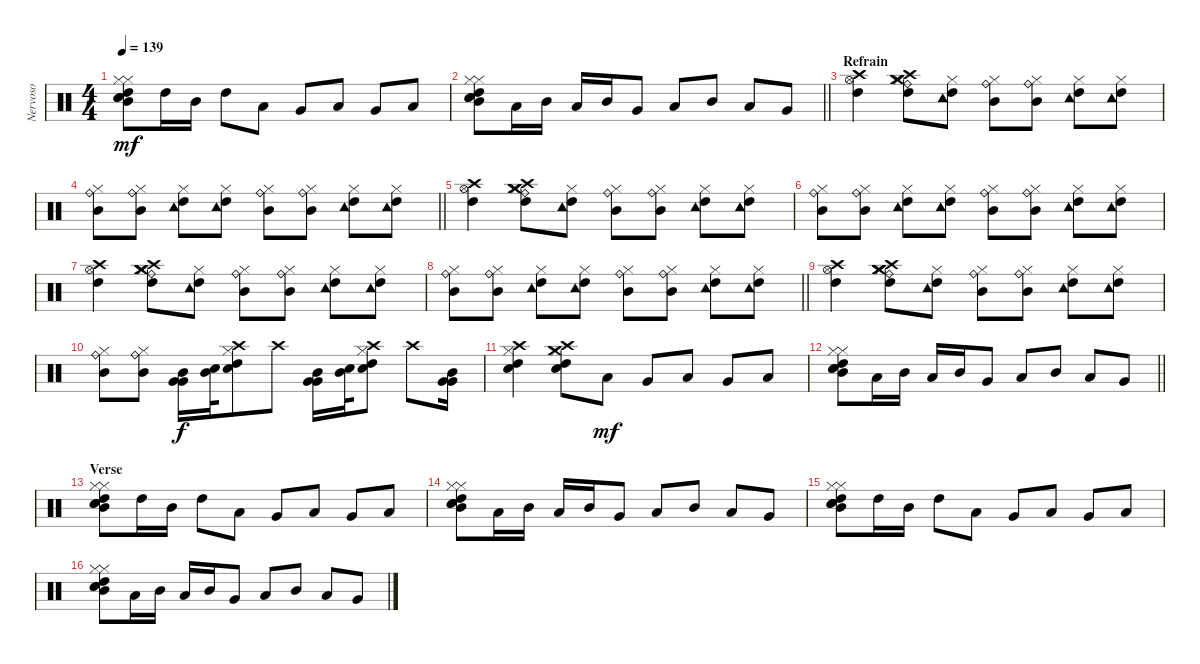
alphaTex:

\track ("Nervoso" "Nervoso") {instrument percussion}
\staff {score}
\articulation defaults
\ts (4 4)
\tempo 139
\clef neutral
\ks c
("High Tom (hit)" "Electric Snare (hit)" "Hi-Hat (closed)" "Hi-Hat (closed)" "Electric Snare (hit)" "Mid Tom (hit)").8{dy mf} "High Tom (hit)".16 "Mid Tom (hit)".16 "High Tom (hit)".8 "Low Tom (hit)".8 "Very Low Tom (hit)".8 "Low Tom (hit)".8 "Very Low Tom (hit)".8 "Low Tom (hit)".8 |
\barLineRight lightlight
("High Tom (hit)" "Electric Snare (hit)" "Hi-Hat (closed)" "Hi-Hat (closed)" "Electric Snare (hit)" "Mid Tom (hit)").8 "Low Tom (hit)".16 "Mid Tom (hit)".16 "Low Tom (hit)".16 "Mid Tom (hit)".16 "Very Low Tom (hit)".8 "Low Tom (hit)".8 "Mid Tom (hit)".8 "Low Tom (hit)".8 "Very Low Tom (hit)".8 |
\section ("" "Refrain")
("Hi-Hat (open)" "Crash high (hit)" "High Tom (hit)").4 ("High Tom (hit)" "Crash high (hit)" "Crash medium (hit)" "Hi-Hat (closed)" "Ride (bell)" "Crash medium (hit)").8 ("High Tom (hit)" "Hi-Hat (closed)" "Tambourine (hit)").8 ("Ride (bell)" "Mid Tom (hit)" "Hi-Hat (closed)").8 ("Ride (bell)" "Mid Tom (hit)" "Hi-Hat (closed)").8 ("High Tom (hit)" "Hi-Hat (closed)" "Tambourine (hit)").8 ("High Tom (hit)" "Hi-Hat (closed)" "Tambourine (hit)").8 |
\barLineRight lightlight
("Ride (bell)" "Mid Tom (hit)" "Hi-Hat (closed)").8 ("Ride (bell)" "Mid Tom (hit)" "Hi-Hat (closed)").8 ("High Tom (hit)" "Hi-Hat (closed)" "Tambourine (hit)").8 ("High Tom (hit)" "Hi-Hat (closed)" "Tambourine (hit)").8 ("Ride (bell)" "Mid Tom (hit)" "Hi-Hat (closed)").8 ("Ride (bell)" "Mid Tom (hit)" "Hi-Hat (closed)").8 ("High Tom (hit)" "Hi-Hat (closed)" "Tambourine (hit)").8 ("High Tom (hit)" "Hi-Hat (closed)" "Tambourine (hit)").8 |
("Hi-Hat (open)" "Crash high (hit)" "High Tom (hit)").4 ("High Tom (hit)" "Crash high (hit)" "Crash medium (hit)" "Hi-Hat (closed)" "Ride (bell)" "Crash medium (hit)").8 ("High Tom (hit)" "Hi-Hat (closed)" "Tambourine (hit)").8 ("Ride (bell)" "Mid Tom (hit)" "Hi-Hat (closed)").8 ("Ride (bell)" "Mid Tom (hit)" "Hi-Hat (closed)").8 ("High Tom (hit)" "Hi-Hat (closed)" "Tambourine (hit)").8 ("High Tom (hit)" "Hi-Hat (closed)" "Tambourine (hit)").8 |
("Ride (bell)" "Mid Tom (hit)" "Hi-Hat (closed)").8 ("Ride (bell)" "Mid Tom (hit)" "Hi-Hat (closed)").8 ("High Tom (hit)" "Hi-Hat (closed)" "Tambourine (hit)").8 ("High Tom (hit)" "Hi-Hat (closed)" "Tambourine (hit)").8 ("Ride (bell)" "Mid Tom (hit)" "Hi-Hat (closed)").8 ("Ride (bell)" "Mid Tom (hit)" "Hi-Hat (closed)").8 ("High Tom (hit)" "Hi-Hat (closed)" "Tambourine (hit)").8 ("High Tom (hit)" "Hi-Hat (closed)" "Tambourine (hit)").8 |
("Hi-Hat (open)" "Crash high (hit)" "High Tom (hit)").4 ("High Tom (hit)" "Crash high (hit)" "Crash medium (hit)" "Hi-Hat (closed)" "Ride (bell)" "Crash medium (hit)").8 ("High Tom (hit)" "Hi-Hat (closed)" "Tambourine (hit)").8 ("Ride (bell)" "Mid Tom (hit)" "Hi-Hat (closed)").8 ("Ride (bell)" "Mid Tom (hit)" "Hi-Hat (closed)").8 ("High Tom (hit)" "Hi-Hat (closed)" "Tambourine (hit)").8 ("High Tom (hit)" "Hi-Hat (closed)" "Tambourine (hit)").8 |
\barLineRight lightlight
("Ride (bell)" "Mid Tom (hit)" "Hi-Hat (closed)").8 ("Ride (bell)" "Mid Tom (hit)" "Hi-Hat (closed)").8 ("High Tom (hit)" "Hi-Hat (closed)" "Tambourine (hit)").8 ("High Tom (hit)" "Hi-Hat (closed)" "Tambourine (hit)").8 ("Ride (bell)" "Mid Tom (hit)" "Hi-Hat (closed)").8 ("Ride (bell)" "Mid Tom (hit)" "Hi-Hat (closed)").8 ("High Tom (hit)" "Hi-Hat (closed)" "Tambourine (hit)").8 ("High Tom (hit)" "Hi-Hat (closed)" "Tambourine (hit)").8 |
("Hi-Hat (open)" "Crash high (hit)" "High Tom (hit)").4 ("High Tom (hit)" "Crash high (hit)" "Crash medium (hit)" "Hi-Hat (closed)" "Ride (bell)" "Crash medium (hit)").8 ("High Tom (hit)" "Hi-Hat (closed)" "Tambourine (hit)").8 ("Ride (bell)" "Mid Tom (hit)" "Hi-Hat (closed)").8 ("Ride (bell)" "Mid Tom (hit)" "Hi-Hat (closed)").8 ("High Tom (hit)" "Hi-Hat (closed)" "Tambourine (hit)").8 ("High Tom (hit)" "Hi-Hat (closed)" "Tambourine (hit)").8 |
("Ride (bell)" "Mid Tom (hit)" "Hi-Hat (closed)").8 ("Ride (bell)" "Mid Tom (hit)" "Hi-Hat (closed)").8 ("Very Low Tom (hit)" "Mid Tom (hit)" "Very Low Tom (hit)").16{dy f} ("Mid Tom (hit)" "Electric Snare (hit)").32 ("High Tom (hit)" "Hi-Hat (closed)" "Electric Snare (hit)" "Crash high (hit)").8 "Crash high (hit)".8 ("Very Low Tom (hit)" "Mid Tom (hit)" "Very Low Tom (hit)").16 ("Mid Tom (hit)" "Electric Snare (hit)").32 ("High Tom (hit)" "Hi-Hat (closed)" "Electric Snare (hit)" "Crash high (hit)").8 "Crash high (hit)".8 ("Very Low Tom (hit)" "Mid Tom (hit)" "Very Low Tom (hit)").16 |
("High Tom (hit)" "Hi-Hat (closed)" "Electric Snare (hit)" "Crash high (hit)").4 ("High Tom (hit)" "Hi-Hat (closed)" "Electric Snare (hit)" "Crash high (hit)" "Crash medium (hit)").8 "Low Tom (hit)".8{dy mf} "Very Low Tom (hit)".8 "Low Tom (hit)".8 "Very Low Tom (hit)".8 "Low Tom (hit)".8 |
\barLineRight lightlight
("High Tom (hit)" "Electric Snare (hit)" "Hi-Hat (closed)" "Hi-Hat (closed)" "Electric Snare (hit)" "Mid Tom (hit)").8 "Low Tom (hit)".16 "Mid Tom (hit)".16 "Low Tom (hit)".16 "Mid Tom (hit)".16 "Very Low Tom (hit)".8 "Low Tom (hit)".8 "Mid Tom (hit)".8 "Low Tom (hit)".8 "Very Low Tom (hit)".8 |
\section ("" "Verse")
("High Tom (hit)" "Electric Snare (hit)" "Hi-Hat (closed)" "Hi-Hat (closed)" "Electric Snare (hit)" "Mid Tom (hit)").8 "High Tom (hit)".16 "Mid Tom (hit)".16 "High Tom (hit)".8 "Low Tom (hit)".8 "Very Low Tom (hit)".8 "Low Tom (hit)".8 "Very Low Tom (hit)".8 "Low Tom (hit)".8 |
("High Tom (hit)" "Electric Snare (hit)" "Hi-Hat (closed)" "Hi-Hat (closed)" "Electric Snare (hit)" "Mid Tom (hit)").8 "Low Tom (hit)".16 "Mid Tom (hit)".16 "Low Tom (hit)".16 "Mid Tom (hit)".16 "Very Low Tom (hit)".8 "Low Tom (hit)".8 "Mid Tom (hit)".8 "Low Tom (hit)".8 "Very Low Tom (hit)".8 |
("High Tom (hit)" "Electric Snare (hit)" "Hi-Hat (closed)" "Hi-Hat (closed)" "Electric Snare (hit)" "Mid Tom (hit)").8 "High Tom (hit)".16 "Mid Tom (hit)".16 "High Tom (hit)".8 "Low Tom (hit)".8 "Very Low Tom (hit)".8 "Low Tom (hit)".8 "Very Low Tom (hit)".8 "Low Tom (hit)".8 |
("High Tom (hit)" "Electric Snare (hit)" "Hi-Hat (closed)" "Hi-Hat (closed)" "Electric Snare (hit)" "Mid Tom (hit)").8 "Low Tom (hit)".16 "Mid Tom (hit)".16 "Low Tom (hit)".16 "Mid Tom (hit)".16 "Very Low Tom (hit)".8 "Low Tom (hit)".8 "Mid Tom (hit)".8 "Low Tom (hit)".8 "Very Low Tom (hit)".8
